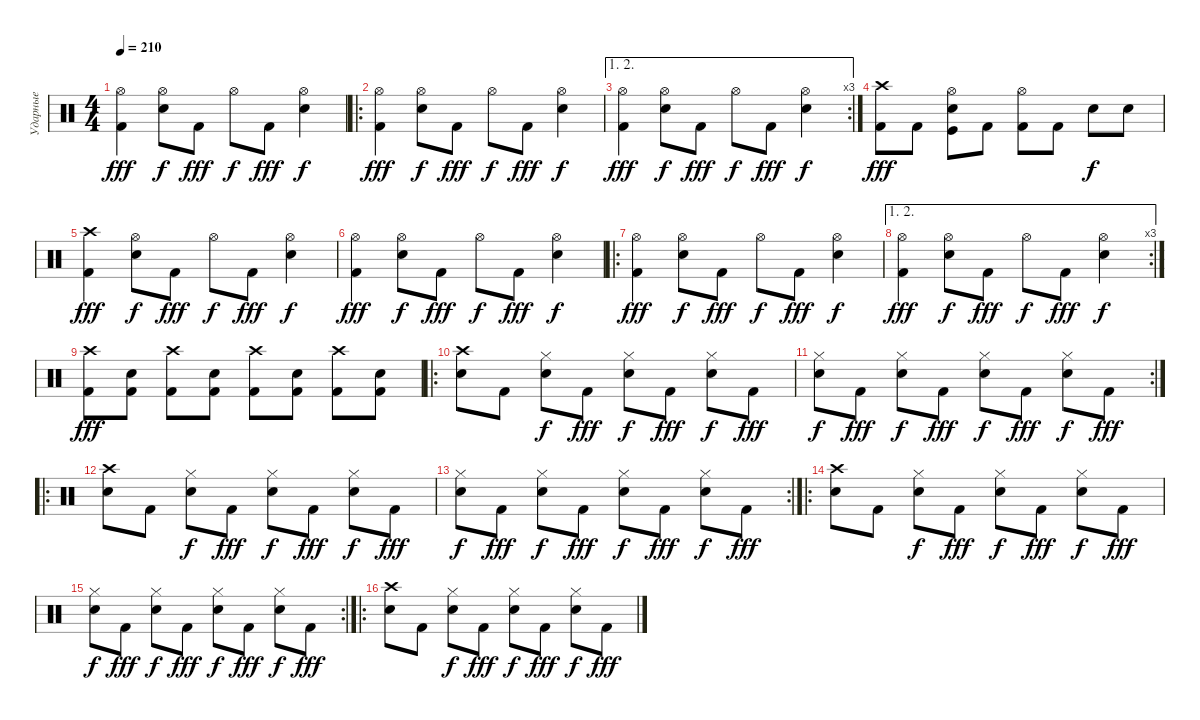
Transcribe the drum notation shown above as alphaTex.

\track ("Ударные" "Ударные") {instrument percussion}
\staff {score}
\articulation defaults
\ts (4 4)
\tempo 210
\clef neutral
\ks c
("Kick (hit) 2" "Hi-Hat (open)").4{dy fff} ("Snare (hit) 2" "Hi-Hat (open)").8{dy f} "Kick (hit) 2".8{dy fff} "Hi-Hat (open)".8{dy f} "Kick (hit) 2".8{dy fff} ("Snare (hit) 2" "Hi-Hat (open)").4{dy f} |
\ro
("Kick (hit) 2" "Hi-Hat (open)").4{dy fff} ("Snare (hit) 2" "Hi-Hat (open)").8{dy f} "Kick (hit) 2".8{dy fff} "Hi-Hat (open)".8{dy f} "Kick (hit) 2".8{dy fff} ("Snare (hit) 2" "Hi-Hat (open)").4{dy f} |
\ae (1 2)
\rc 3
("Kick (hit) 2" "Hi-Hat (open)").4{dy fff} ("Snare (hit) 2" "Hi-Hat (open)").8{dy f} "Kick (hit) 2".8{dy fff} "Hi-Hat (open)".8{dy f} "Kick (hit) 2".8{dy fff} ("Snare (hit) 2" "Hi-Hat (open)").4{dy f} |
("Kick (hit) 2" "Crash high (hit)").8{dy fff} "Kick (hit) 2".8 ("Kick (hit)" "Snare (hit) 2" "Hi-Hat (open)").8 "Kick (hit) 2".8 ("Kick (hit) 2" "Hi-Hat (open)").8 "Kick (hit) 2".8 "Snare (hit) 2".8{dy f} "Snare (hit) 2".8 |
("Kick (hit) 2" "Crash high (hit)").4{dy fff} ("Snare (hit) 2" "Hi-Hat (open)").8{dy f} "Kick (hit) 2".8{dy fff} "Hi-Hat (open)".8{dy f} "Kick (hit) 2".8{dy fff} ("Snare (hit) 2" "Hi-Hat (open)").4{dy f} |
("Kick (hit) 2" "Hi-Hat (open)").4{dy fff} ("Snare (hit) 2" "Hi-Hat (open)").8{dy f} "Kick (hit) 2".8{dy fff} "Hi-Hat (open)".8{dy f} "Kick (hit) 2".8{dy fff} ("Snare (hit) 2" "Hi-Hat (open)").4{dy f} |
\ro
("Kick (hit) 2" "Hi-Hat (open)").4{dy fff} ("Snare (hit) 2" "Hi-Hat (open)").8{dy f} "Kick (hit) 2".8{dy fff} "Hi-Hat (open)".8{dy f} "Kick (hit) 2".8{dy fff} ("Snare (hit) 2" "Hi-Hat (open)").4{dy f} |
\ae (1 2)
\rc 3
("Kick (hit) 2" "Hi-Hat (open)").4{dy fff} ("Snare (hit) 2" "Hi-Hat (open)").8{dy f} "Kick (hit) 2".8{dy fff} "Hi-Hat (open)".8{dy f} "Kick (hit) 2".8{dy fff} ("Snare (hit) 2" "Hi-Hat (open)").4{dy f} |
("Kick (hit) 2" "Crash high (hit)").8{dy fff} ("Kick (hit) 2" "Snare (hit) 2").8 ("Kick (hit) 2" "Crash high (hit)").8 ("Kick (hit) 2" "Snare (hit) 2").8 ("Kick (hit) 2" "Crash high (hit)").8 ("Kick (hit) 2" "Snare (hit) 2").8 ("Kick (hit) 2" "Crash high (hit)").8 ("Kick (hit) 2" "Snare (hit) 2").8 |
\ro
("Snare (hit) 2" "Crash high (hit)").8 "Kick (hit) 2".8 ("Snare (hit) 2" "Hi-Hat (closed)").8{dy f} "Kick (hit) 2".8{dy fff} ("Snare (hit) 2" "Hi-Hat (closed)").8{dy f} "Kick (hit) 2".8{dy fff} ("Snare (hit) 2" "Hi-Hat (closed)").8{dy f} "Kick (hit) 2".8{dy fff} |
\rc 2
("Snare (hit) 2" "Hi-Hat (closed)").8{dy f} "Kick (hit) 2".8{dy fff} ("Snare (hit) 2" "Hi-Hat (closed)").8{dy f} "Kick (hit) 2".8{dy fff} ("Snare (hit) 2" "Hi-Hat (closed)").8{dy f} "Kick (hit) 2".8{dy fff} ("Snare (hit) 2" "Hi-Hat (closed)").8{dy f} "Kick (hit) 2".8{dy fff} |
\ro
("Snare (hit) 2" "Crash high (hit)").8 "Kick (hit) 2".8 ("Snare (hit) 2" "Hi-Hat (closed)").8{dy f} "Kick (hit) 2".8{dy fff} ("Snare (hit) 2" "Hi-Hat (closed)").8{dy f} "Kick (hit) 2".8{dy fff} ("Snare (hit) 2" "Hi-Hat (closed)").8{dy f} "Kick (hit) 2".8{dy fff} |
\rc 2
("Snare (hit) 2" "Hi-Hat (closed)").8{dy f} "Kick (hit) 2".8{dy fff} ("Snare (hit) 2" "Hi-Hat (closed)").8{dy f} "Kick (hit) 2".8{dy fff} ("Snare (hit) 2" "Hi-Hat (closed)").8{dy f} "Kick (hit) 2".8{dy fff} ("Snare (hit) 2" "Hi-Hat (closed)").8{dy f} "Kick (hit) 2".8{dy fff} |
\ro
("Snare (hit) 2" "Crash high (hit)").8 "Kick (hit) 2".8 ("Snare (hit) 2" "Hi-Hat (closed)").8{dy f} "Kick (hit) 2".8{dy fff} ("Snare (hit) 2" "Hi-Hat (closed)").8{dy f} "Kick (hit) 2".8{dy fff} ("Snare (hit) 2" "Hi-Hat (closed)").8{dy f} "Kick (hit) 2".8{dy fff} |
\rc 2
("Snare (hit) 2" "Hi-Hat (closed)").8{dy f} "Kick (hit) 2".8{dy fff} ("Snare (hit) 2" "Hi-Hat (closed)").8{dy f} "Kick (hit) 2".8{dy fff} ("Snare (hit) 2" "Hi-Hat (closed)").8{dy f} "Kick (hit) 2".8{dy fff} ("Snare (hit) 2" "Hi-Hat (closed)").8{dy f} "Kick (hit) 2".8{dy fff} |
\ro
("Snare (hit) 2" "Crash high (hit)").8 "Kick (hit) 2".8 ("Snare (hit) 2" "Hi-Hat (closed)").8{dy f} "Kick (hit) 2".8{dy fff} ("Snare (hit) 2" "Hi-Hat (closed)").8{dy f} "Kick (hit) 2".8{dy fff} ("Snare (hit) 2" "Hi-Hat (closed)").8{dy f} "Kick (hit) 2".8{dy fff}
